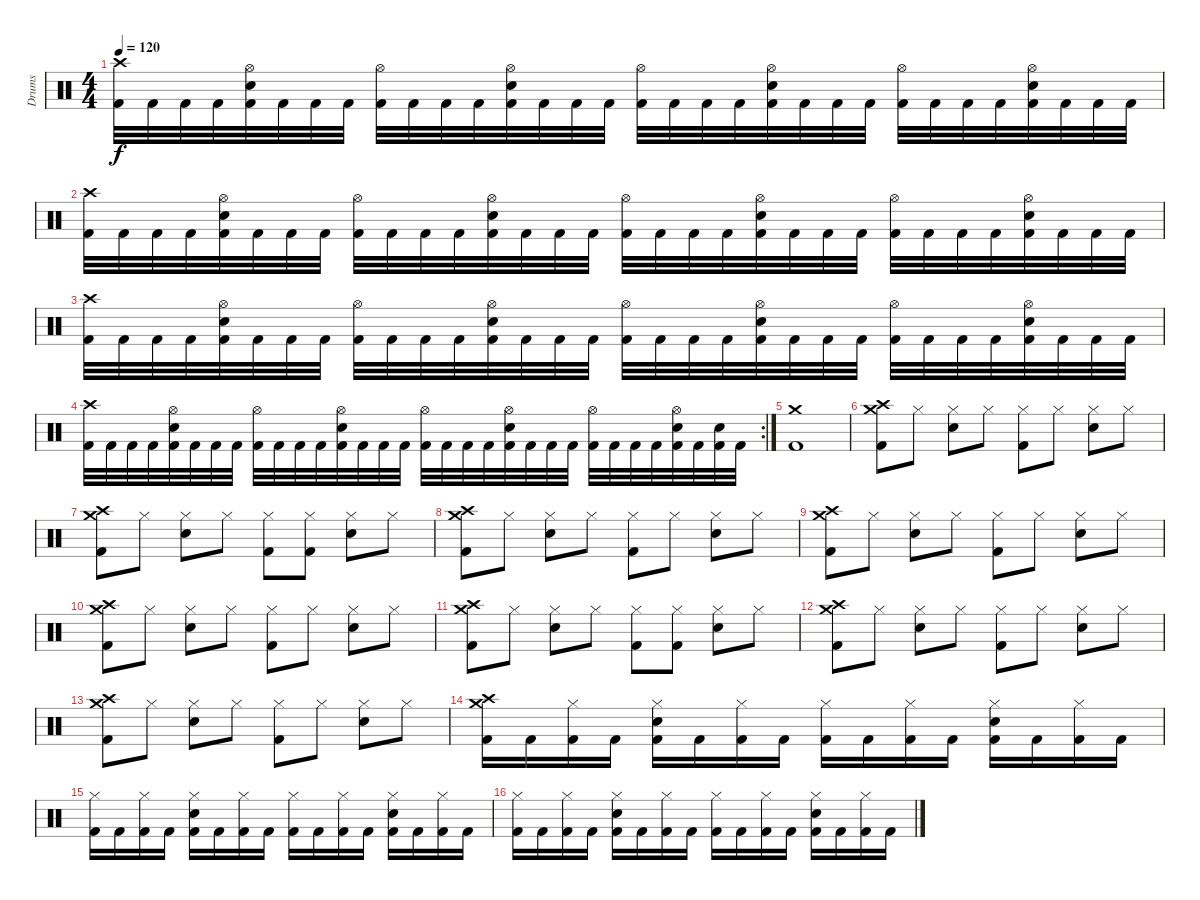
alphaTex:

\track ("Drums" "Drums") {instrument percussion}
\staff {score}
\articulation defaults
\ts (4 4)
\tempo 120
\clef neutral
\ks c
("Crash high (hit)" "Kick (hit) 2").32{dy f} "Kick (hit) 2".32 "Kick (hit) 2".32 "Kick (hit) 2".32 ("Hi-Hat (open)" "Snare (hit) 2" "Kick (hit) 2").32 "Kick (hit) 2".32 "Kick (hit) 2".32 "Kick (hit) 2".32 ("Hi-Hat (open)" "Kick (hit) 2").32 "Kick (hit) 2".32 "Kick (hit) 2".32 "Kick (hit) 2".32 ("Hi-Hat (open)" "Snare (hit) 2" "Kick (hit) 2").32 "Kick (hit) 2".32 "Kick (hit) 2".32 "Kick (hit) 2".32 ("Hi-Hat (open)" "Kick (hit) 2").32 "Kick (hit) 2".32 "Kick (hit) 2".32 "Kick (hit) 2".32 ("Hi-Hat (open)" "Snare (hit) 2" "Kick (hit) 2").32 "Kick (hit) 2".32 "Kick (hit) 2".32 "Kick (hit) 2".32 ("Hi-Hat (open)" "Kick (hit) 2").32 "Kick (hit) 2".32 "Kick (hit) 2".32 "Kick (hit) 2".32 ("Hi-Hat (open)" "Snare (hit) 2" "Kick (hit) 2").32 "Kick (hit) 2".32 "Kick (hit) 2".32 "Kick (hit) 2".32 |
("Crash high (hit)" "Kick (hit) 2").32 "Kick (hit) 2".32 "Kick (hit) 2".32 "Kick (hit) 2".32 ("Hi-Hat (open)" "Snare (hit) 2" "Kick (hit) 2").32 "Kick (hit) 2".32 "Kick (hit) 2".32 "Kick (hit) 2".32 ("Hi-Hat (open)" "Kick (hit) 2").32 "Kick (hit) 2".32 "Kick (hit) 2".32 "Kick (hit) 2".32 ("Hi-Hat (open)" "Snare (hit) 2" "Kick (hit) 2").32 "Kick (hit) 2".32 "Kick (hit) 2".32 "Kick (hit) 2".32 ("Hi-Hat (open)" "Kick (hit) 2").32 "Kick (hit) 2".32 "Kick (hit) 2".32 "Kick (hit) 2".32 ("Hi-Hat (open)" "Snare (hit) 2" "Kick (hit) 2").32 "Kick (hit) 2".32 "Kick (hit) 2".32 "Kick (hit) 2".32 ("Hi-Hat (open)" "Kick (hit) 2").32 "Kick (hit) 2".32 "Kick (hit) 2".32 "Kick (hit) 2".32 ("Hi-Hat (open)" "Snare (hit) 2" "Kick (hit) 2").32 "Kick (hit) 2".32 "Kick (hit) 2".32 "Kick (hit) 2".32 |
("Crash high (hit)" "Kick (hit) 2").32 "Kick (hit) 2".32 "Kick (hit) 2".32 "Kick (hit) 2".32 ("Hi-Hat (open)" "Snare (hit) 2" "Kick (hit) 2").32 "Kick (hit) 2".32 "Kick (hit) 2".32 "Kick (hit) 2".32 ("Hi-Hat (open)" "Kick (hit) 2").32 "Kick (hit) 2".32 "Kick (hit) 2".32 "Kick (hit) 2".32 ("Hi-Hat (open)" "Snare (hit) 2" "Kick (hit) 2").32 "Kick (hit) 2".32 "Kick (hit) 2".32 "Kick (hit) 2".32 ("Hi-Hat (open)" "Kick (hit) 2").32 "Kick (hit) 2".32 "Kick (hit) 2".32 "Kick (hit) 2".32 ("Hi-Hat (open)" "Snare (hit) 2" "Kick (hit) 2").32 "Kick (hit) 2".32 "Kick (hit) 2".32 "Kick (hit) 2".32 ("Hi-Hat (open)" "Kick (hit) 2").32 "Kick (hit) 2".32 "Kick (hit) 2".32 "Kick (hit) 2".32 ("Hi-Hat (open)" "Snare (hit) 2" "Kick (hit) 2").32 "Kick (hit) 2".32 "Kick (hit) 2".32 "Kick (hit) 2".32 |
\rc 2
("Crash high (hit)" "Kick (hit) 2").32 "Kick (hit) 2".32 "Kick (hit) 2".32 "Kick (hit) 2".32 ("Hi-Hat (open)" "Snare (hit) 2" "Kick (hit) 2").32 "Kick (hit) 2".32 "Kick (hit) 2".32 "Kick (hit) 2".32 ("Hi-Hat (open)" "Kick (hit) 2").32 "Kick (hit) 2".32 "Kick (hit) 2".32 "Kick (hit) 2".32 ("Hi-Hat (open)" "Snare (hit) 2" "Kick (hit) 2").32 "Kick (hit) 2".32 "Kick (hit) 2".32 "Kick (hit) 2".32 ("Hi-Hat (open)" "Kick (hit) 2").32 "Kick (hit) 2".32 "Kick (hit) 2".32 "Kick (hit) 2".32 ("Hi-Hat (open)" "Snare (hit) 2" "Kick (hit) 2").32 "Kick (hit) 2".32 "Kick (hit) 2".32 "Kick (hit) 2".32 ("Hi-Hat (open)" "Kick (hit) 2").32 "Kick (hit) 2".32 "Kick (hit) 2".32 "Kick (hit) 2".32 ("Hi-Hat (open)" "Snare (hit) 2" "Kick (hit) 2").32 "Kick (hit) 2".32 ("Snare (hit) 2" "Kick (hit) 2").32 "Kick (hit) 2".32 |
("Crash medium (hit)" "Kick (hit) 2").1 |
("Crash high (hit)" "Crash medium (hit)" "Kick (hit) 2").8 "Hi-Hat (closed)".8 ("Hi-Hat (closed)" "Snare (hit) 2").8 "Hi-Hat (closed)".8 ("Hi-Hat (closed)" "Kick (hit) 2").8 "Hi-Hat (closed)".8 ("Hi-Hat (closed)" "Snare (hit) 2").8 "Hi-Hat (closed)".8 |
("Crash high (hit)" "Crash medium (hit)" "Kick (hit) 2").8 "Hi-Hat (closed)".8 ("Hi-Hat (closed)" "Snare (hit) 2").8 "Hi-Hat (closed)".8 ("Hi-Hat (closed)" "Kick (hit) 2").8 ("Hi-Hat (closed)" "Kick (hit) 2").8 ("Hi-Hat (closed)" "Snare (hit) 2").8 "Hi-Hat (closed)".8 |
("Crash high (hit)" "Crash medium (hit)" "Kick (hit) 2").8 "Hi-Hat (closed)".8 ("Hi-Hat (closed)" "Snare (hit) 2").8 "Hi-Hat (closed)".8 ("Hi-Hat (closed)" "Kick (hit) 2").8 "Hi-Hat (closed)".8 ("Hi-Hat (closed)" "Snare (hit) 2").8 "Hi-Hat (closed)".8 |
("Crash high (hit)" "Crash medium (hit)" "Kick (hit) 2").8 "Hi-Hat (closed)".8 ("Hi-Hat (closed)" "Snare (hit) 2").8 "Hi-Hat (closed)".8 ("Hi-Hat (closed)" "Kick (hit) 2").8 "Hi-Hat (closed)".8 ("Hi-Hat (closed)" "Snare (hit) 2").8 "Hi-Hat (closed)".8 |
("Crash high (hit)" "Crash medium (hit)" "Kick (hit) 2").8 "Hi-Hat (closed)".8 ("Hi-Hat (closed)" "Snare (hit) 2").8 "Hi-Hat (closed)".8 ("Hi-Hat (closed)" "Kick (hit) 2").8 "Hi-Hat (closed)".8 ("Hi-Hat (closed)" "Snare (hit) 2").8 "Hi-Hat (closed)".8 |
("Crash high (hit)" "Crash medium (hit)" "Kick (hit) 2").8 "Hi-Hat (closed)".8 ("Hi-Hat (closed)" "Snare (hit) 2").8 "Hi-Hat (closed)".8 ("Hi-Hat (closed)" "Kick (hit) 2").8 ("Hi-Hat (closed)" "Kick (hit) 2").8 ("Hi-Hat (closed)" "Snare (hit) 2").8 "Hi-Hat (closed)".8 |
("Crash high (hit)" "Crash medium (hit)" "Kick (hit) 2").8 "Hi-Hat (closed)".8 ("Hi-Hat (closed)" "Snare (hit) 2").8 "Hi-Hat (closed)".8 ("Hi-Hat (closed)" "Kick (hit) 2").8 "Hi-Hat (closed)".8 ("Hi-Hat (closed)" "Snare (hit) 2").8 "Hi-Hat (closed)".8 |
("Crash high (hit)" "Crash medium (hit)" "Kick (hit) 2").8 "Hi-Hat (closed)".8 ("Hi-Hat (closed)" "Snare (hit) 2").8 "Hi-Hat (closed)".8 ("Hi-Hat (closed)" "Kick (hit) 2").8 "Hi-Hat (closed)".8 ("Hi-Hat (closed)" "Snare (hit) 2").8 "Hi-Hat (closed)".8 |
("Crash high (hit)" "Crash medium (hit)" "Kick (hit) 2").16 "Kick (hit) 2".16 ("Hi-Hat (closed)" "Kick (hit) 2").16 "Kick (hit) 2".16 ("Hi-Hat (closed)" "Snare (hit) 2" "Kick (hit) 2").16 "Kick (hit) 2".16 ("Hi-Hat (closed)" "Kick (hit) 2").16 "Kick (hit) 2".16 ("Hi-Hat (closed)" "Kick (hit) 2").16 "Kick (hit) 2".16 ("Hi-Hat (closed)" "Kick (hit) 2").16 "Kick (hit) 2".16 ("Hi-Hat (closed)" "Snare (hit) 2" "Kick (hit) 2").16 "Kick (hit) 2".16 ("Hi-Hat (closed)" "Kick (hit) 2").16 "Kick (hit) 2".16 |
("Hi-Hat (closed)" "Kick (hit) 2").16 "Kick (hit) 2".16 ("Hi-Hat (closed)" "Kick (hit) 2").16 "Kick (hit) 2".16 ("Hi-Hat (closed)" "Snare (hit) 2" "Kick (hit) 2").16 "Kick (hit) 2".16 ("Hi-Hat (closed)" "Kick (hit) 2").16 "Kick (hit) 2".16 ("Hi-Hat (closed)" "Kick (hit) 2").16 "Kick (hit) 2".16 ("Hi-Hat (closed)" "Kick (hit) 2").16 "Kick (hit) 2".16 ("Hi-Hat (closed)" "Snare (hit) 2" "Kick (hit) 2").16 "Kick (hit) 2".16 ("Hi-Hat (closed)" "Kick (hit) 2").16 "Kick (hit) 2".16 |
("Hi-Hat (closed)" "Kick (hit) 2").16 "Kick (hit) 2".16 ("Hi-Hat (closed)" "Kick (hit) 2").16 "Kick (hit) 2".16 ("Hi-Hat (closed)" "Snare (hit) 2" "Kick (hit) 2").16 "Kick (hit) 2".16 ("Hi-Hat (closed)" "Kick (hit) 2").16 "Kick (hit) 2".16 ("Hi-Hat (closed)" "Kick (hit) 2").16 "Kick (hit) 2".16 ("Hi-Hat (closed)" "Kick (hit) 2").16 "Kick (hit) 2".16 ("Hi-Hat (closed)" "Snare (hit) 2" "Kick (hit) 2").16 "Kick (hit) 2".16 ("Hi-Hat (closed)" "Kick (hit) 2").16 "Kick (hit) 2".16
